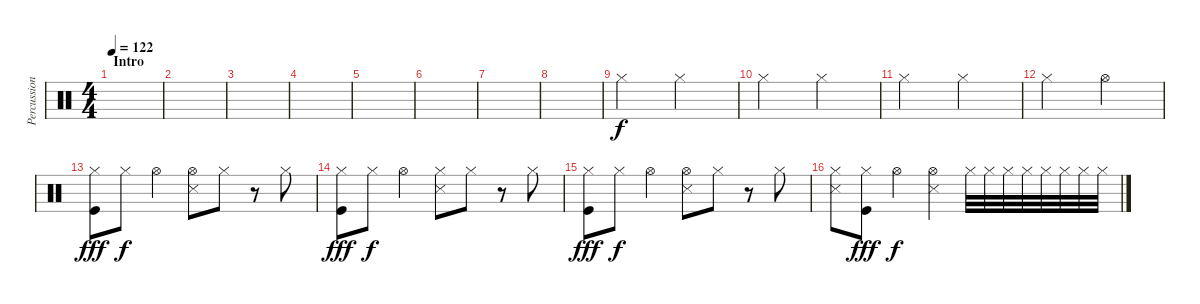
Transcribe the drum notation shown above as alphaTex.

\track ("Percussion" "Percussion") {instrument percussion}
\staff {score}
\articulation defaults
\ts (4 4)
\section ("" "Intro")
\tempo 122
\clef neutral
\ks c
|
|
|
|
|
|
|
|
"Hi-Hat (closed)".2 "Hi-Hat (closed)".2 |
"Hi-Hat (closed)".2 "Hi-Hat (closed)".2 |
"Hi-Hat (closed)".2 "Hi-Hat (closed)".2 |
"Hi-Hat (closed)".2 "Hi-Hat (open)".2 |
("Hi-Hat (closed)" "Kick (hit)").8{dy fff} "Hi-Hat (closed)".8{dy f} "Hi-Hat (open)".4 ("Hi-Hat (open)" "Snare (side stick) 3").8 "Hi-Hat (closed)".8 r.8 "Hi-Hat (closed)".8 |
("Hi-Hat (closed)" "Kick (hit)").8{dy fff} "Hi-Hat (closed)".8{dy f} "Hi-Hat (open)".4 ("Hi-Hat (closed)" "Snare (side stick) 3").8 "Hi-Hat (closed)".8 r.8 "Hi-Hat (closed)".8 |
("Hi-Hat (closed)" "Kick (hit)").8{dy fff} "Hi-Hat (closed)".8{dy f} "Hi-Hat (open)".4 ("Hi-Hat (open)" "Snare (side stick) 3").8 "Hi-Hat (closed)".8 r.8 "Hi-Hat (closed)".8 |
("Hi-Hat (closed)" "Snare (side stick) 3").8 ("Hi-Hat (closed)" "Kick (hit)").8{dy fff} "Hi-Hat (open)".4{dy f} ("Hi-Hat (open)" "Snare (side stick) 3").4 "Hi-Hat (closed)".32 "Hi-Hat (closed)".32 "Hi-Hat (closed)".32 "Hi-Hat (closed)".32 "Hi-Hat (closed)".32 "Hi-Hat (closed)".32 "Hi-Hat (closed)".32 "Hi-Hat (closed)".32
